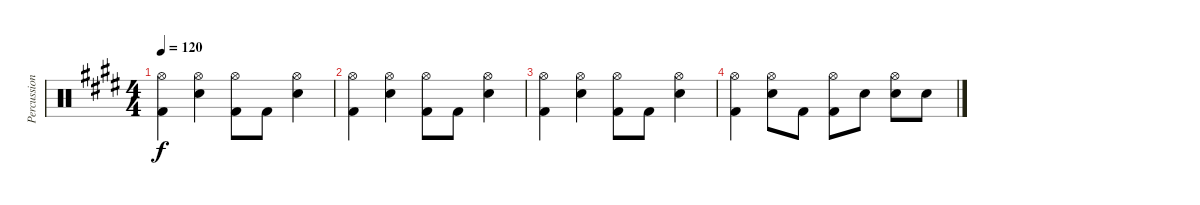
\track ("Percussion" "Percussion") {instrument percussion}
\staff {score}
\articulation defaults
\ts (4 4)
\tempo 120
\clef neutral
\ks e
("Hi-Hat (open)" "Kick (hit) 2").4{dy f} ("Hi-Hat (open)" "Snare (hit) 2").4 ("Hi-Hat (open)" "Kick (hit) 2").8 "Kick (hit) 2".8 ("Hi-Hat (open)" "Snare (hit) 2").4 |
("Hi-Hat (open)" "Kick (hit) 2").4 ("Hi-Hat (open)" "Snare (hit) 2").4 ("Hi-Hat (open)" "Kick (hit) 2").8 "Kick (hit) 2".8 ("Hi-Hat (open)" "Snare (hit) 2").4 |
("Hi-Hat (open)" "Kick (hit) 2").4 ("Hi-Hat (open)" "Snare (hit) 2").4 ("Hi-Hat (open)" "Kick (hit) 2").8 "Kick (hit) 2".8 ("Hi-Hat (open)" "Snare (hit) 2").4 |
("Hi-Hat (open)" "Kick (hit) 2").4 ("Hi-Hat (open)" "Snare (hit) 2").8 "Kick (hit) 2".8 ("Hi-Hat (open)" "Kick (hit) 2").8 "Snare (hit) 2".8 ("Hi-Hat (open)" "Snare (hit) 2").8 "Snare (hit) 2".8
